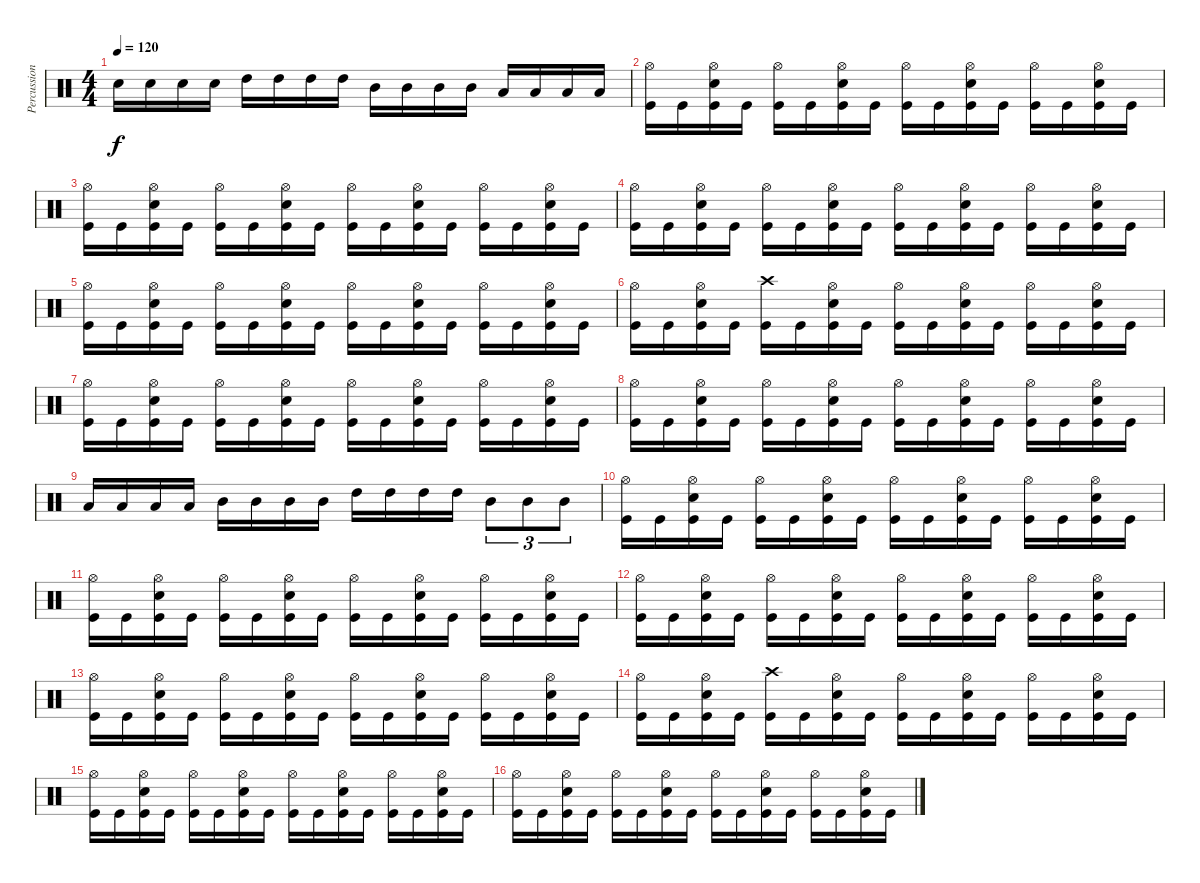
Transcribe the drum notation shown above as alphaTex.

\track ("Percussioni" "Percussion") {instrument percussion}
\staff {score}
\articulation defaults
\ts (4 4)
\tempo 120
\clef neutral
\ks c "Electric Snare (hit)".16{dy f} "Electric Snare (hit)".16 "Electric Snare (hit)".16 "Electric Snare (hit)".16 "High Tom (hit)".16 "High Tom (hit)".16 "High Tom (hit)".16 "High Tom (hit)".16 "Mid Tom (hit)".16 "Mid Tom (hit)".16 "Mid Tom (hit)".16 "Mid Tom (hit)".16 "Low Tom (hit)".16 "Low Tom (hit)".16 "Low Tom (hit)".16 "Low Tom (hit)".16
|
("Hi-Hat (open)" "Kick (hit)").16 "Kick (hit)".16 ("Hi-Hat (open)" "Electric Snare (hit)" "Kick (hit)").16 "Kick (hit)".16 ("Hi-Hat (open)" "Kick (hit)").16 "Kick (hit)".16 ("Hi-Hat (open)" "Electric Snare (hit)" "Kick (hit)").16 "Kick (hit)".16 ("Hi-Hat (open)" "Kick (hit)").16 "Kick (hit)".16 ("Hi-Hat (open)" "Electric Snare (hit)" "Kick (hit)").16 "Kick (hit)".16 ("Hi-Hat (open)" "Kick (hit)").16 "Kick (hit)".16 ("Hi-Hat (open)" "Electric Snare (hit)" "Kick (hit)").16 "Kick (hit)".16 |
("Hi-Hat (open)" "Kick (hit)").16 "Kick (hit)".16 ("Hi-Hat (open)" "Electric Snare (hit)" "Kick (hit)").16 "Kick (hit)".16 ("Hi-Hat (open)" "Kick (hit)").16 "Kick (hit)".16 ("Hi-Hat (open)" "Electric Snare (hit)" "Kick (hit)").16 "Kick (hit)".16 ("Hi-Hat (open)" "Kick (hit)").16 "Kick (hit)".16 ("Hi-Hat (open)" "Electric Snare (hit)" "Kick (hit)").16 "Kick (hit)".16 ("Hi-Hat (open)" "Kick (hit)").16 "Kick (hit)".16 ("Hi-Hat (open)" "Electric Snare (hit)" "Kick (hit)").16 "Kick (hit)".16 |
("Hi-Hat (open)" "Kick (hit)").16 "Kick (hit)".16 ("Hi-Hat (open)" "Electric Snare (hit)" "Kick (hit)").16 "Kick (hit)".16 ("Hi-Hat (open)" "Kick (hit)").16 "Kick (hit)".16 ("Hi-Hat (open)" "Electric Snare (hit)" "Kick (hit)").16 "Kick (hit)".16 ("Hi-Hat (open)" "Kick (hit)").16 "Kick (hit)".16 ("Hi-Hat (open)" "Electric Snare (hit)" "Kick (hit)").16 "Kick (hit)".16 ("Hi-Hat (open)" "Kick (hit)").16 "Kick (hit)".16 ("Hi-Hat (open)" "Electric Snare (hit)" "Kick (hit)").16 "Kick (hit)".16 |
("Hi-Hat (open)" "Kick (hit)").16 "Kick (hit)".16 ("Hi-Hat (open)" "Electric Snare (hit)" "Kick (hit)").16 "Kick (hit)".16 ("Hi-Hat (open)" "Kick (hit)").16 "Kick (hit)".16 ("Hi-Hat (open)" "Electric Snare (hit)" "Kick (hit)").16 "Kick (hit)".16 ("Hi-Hat (open)" "Kick (hit)").16 "Kick (hit)".16 ("Hi-Hat (open)" "Electric Snare (hit)" "Kick (hit)").16 "Kick (hit)".16 ("Hi-Hat (open)" "Kick (hit)").16 "Kick (hit)".16 ("Hi-Hat (open)" "Electric Snare (hit)" "Kick (hit)").16 "Kick (hit)".16 |
("Hi-Hat (open)" "Kick (hit)").16 "Kick (hit)".16 ("Hi-Hat (open)" "Electric Snare (hit)" "Kick (hit)").16 "Kick (hit)".16 ("Crash high (hit)" "Kick (hit)").16 "Kick (hit)".16 ("Hi-Hat (open)" "Electric Snare (hit)" "Kick (hit)").16 "Kick (hit)".16 ("Hi-Hat (open)" "Kick (hit)").16 "Kick (hit)".16 ("Hi-Hat (open)" "Electric Snare (hit)" "Kick (hit)").16 "Kick (hit)".16 ("Hi-Hat (open)" "Kick (hit)").16 "Kick (hit)".16 ("Hi-Hat (open)" "Electric Snare (hit)" "Kick (hit)").16 "Kick (hit)".16 |
("Hi-Hat (open)" "Kick (hit)").16 "Kick (hit)".16 ("Hi-Hat (open)" "Electric Snare (hit)" "Kick (hit)").16 "Kick (hit)".16 ("Hi-Hat (open)" "Kick (hit)").16 "Kick (hit)".16 ("Hi-Hat (open)" "Electric Snare (hit)" "Kick (hit)").16 "Kick (hit)".16 ("Hi-Hat (open)" "Kick (hit)").16 "Kick (hit)".16 ("Hi-Hat (open)" "Electric Snare (hit)" "Kick (hit)").16 "Kick (hit)".16 ("Hi-Hat (open)" "Kick (hit)").16 "Kick (hit)".16 ("Hi-Hat (open)" "Electric Snare (hit)" "Kick (hit)").16 "Kick (hit)".16 |
("Hi-Hat (open)" "Kick (hit)").16 "Kick (hit)".16 ("Hi-Hat (open)" "Electric Snare (hit)" "Kick (hit)").16 "Kick (hit)".16 ("Hi-Hat (open)" "Kick (hit)").16 "Kick (hit)".16 ("Hi-Hat (open)" "Electric Snare (hit)" "Kick (hit)").16 "Kick (hit)".16 ("Hi-Hat (open)" "Kick (hit)").16 "Kick (hit)".16 ("Hi-Hat (open)" "Electric Snare (hit)" "Kick (hit)").16 "Kick (hit)".16 ("Hi-Hat (open)" "Kick (hit)").16 "Kick (hit)".16 ("Hi-Hat (open)" "Electric Snare (hit)" "Kick (hit)").16 "Kick (hit)".16 |
"Low Tom (hit)".16 "Low Tom (hit)".16 "Low Tom (hit)".16 "Low Tom (hit)".16 "Mid Tom (hit)".16 "Mid Tom (hit)".16 "Mid Tom (hit)".16 "Mid Tom (hit)".16 "High Tom (hit)".16 "High Tom (hit)".16 "High Tom (hit)".16 "High Tom (hit)".16 "Mid Tom (hit)".8{tu (3 2)} "Mid Tom (hit)".8{tu (3 2)} "Mid Tom (hit)".8{tu (3 2)} |
("Hi-Hat (open)" "Kick (hit)").16 "Kick (hit)".16 ("Hi-Hat (open)" "Electric Snare (hit)" "Kick (hit)").16 "Kick (hit)".16 ("Hi-Hat (open)" "Kick (hit)").16 "Kick (hit)".16 ("Hi-Hat (open)" "Electric Snare (hit)" "Kick (hit)").16 "Kick (hit)".16 ("Hi-Hat (open)" "Kick (hit)").16 "Kick (hit)".16 ("Hi-Hat (open)" "Electric Snare (hit)" "Kick (hit)").16 "Kick (hit)".16 ("Hi-Hat (open)" "Kick (hit)").16 "Kick (hit)".16 ("Hi-Hat (open)" "Electric Snare (hit)" "Kick (hit)").16 "Kick (hit)".16 |
("Hi-Hat (open)" "Kick (hit)").16 "Kick (hit)".16 ("Hi-Hat (open)" "Electric Snare (hit)" "Kick (hit)").16 "Kick (hit)".16 ("Hi-Hat (open)" "Kick (hit)").16 "Kick (hit)".16 ("Hi-Hat (open)" "Electric Snare (hit)" "Kick (hit)").16 "Kick (hit)".16 ("Hi-Hat (open)" "Kick (hit)").16 "Kick (hit)".16 ("Hi-Hat (open)" "Electric Snare (hit)" "Kick (hit)").16 "Kick (hit)".16 ("Hi-Hat (open)" "Kick (hit)").16 "Kick (hit)".16 ("Hi-Hat (open)" "Electric Snare (hit)" "Kick (hit)").16 "Kick (hit)".16 |
("Hi-Hat (open)" "Kick (hit)").16 "Kick (hit)".16 ("Hi-Hat (open)" "Electric Snare (hit)" "Kick (hit)").16 "Kick (hit)".16 ("Hi-Hat (open)" "Kick (hit)").16 "Kick (hit)".16 ("Hi-Hat (open)" "Electric Snare (hit)" "Kick (hit)").16 "Kick (hit)".16 ("Hi-Hat (open)" "Kick (hit)").16 "Kick (hit)".16 ("Hi-Hat (open)" "Electric Snare (hit)" "Kick (hit)").16 "Kick (hit)".16 ("Hi-Hat (open)" "Kick (hit)").16 "Kick (hit)".16 ("Hi-Hat (open)" "Electric Snare (hit)" "Kick (hit)").16 "Kick (hit)".16 |
("Hi-Hat (open)" "Kick (hit)").16 "Kick (hit)".16 ("Hi-Hat (open)" "Electric Snare (hit)" "Kick (hit)").16 "Kick (hit)".16 ("Hi-Hat (open)" "Kick (hit)").16 "Kick (hit)".16 ("Hi-Hat (open)" "Electric Snare (hit)" "Kick (hit)").16 "Kick (hit)".16 ("Hi-Hat (open)" "Kick (hit)").16 "Kick (hit)".16 ("Hi-Hat (open)" "Electric Snare (hit)" "Kick (hit)").16 "Kick (hit)".16 ("Hi-Hat (open)" "Kick (hit)").16 "Kick (hit)".16 ("Hi-Hat (open)" "Electric Snare (hit)" "Kick (hit)").16 "Kick (hit)".16 |
("Hi-Hat (open)" "Kick (hit)").16 "Kick (hit)".16 ("Hi-Hat (open)" "Electric Snare (hit)" "Kick (hit)").16 "Kick (hit)".16 ("Crash high (hit)" "Kick (hit)").16 "Kick (hit)".16 ("Hi-Hat (open)" "Electric Snare (hit)" "Kick (hit)").16 "Kick (hit)".16 ("Hi-Hat (open)" "Kick (hit)").16 "Kick (hit)".16 ("Hi-Hat (open)" "Electric Snare (hit)" "Kick (hit)").16 "Kick (hit)".16 ("Hi-Hat (open)" "Kick (hit)").16 "Kick (hit)".16 ("Hi-Hat (open)" "Electric Snare (hit)" "Kick (hit)").16 "Kick (hit)".16 |
("Hi-Hat (open)" "Kick (hit)").16 "Kick (hit)".16 ("Hi-Hat (open)" "Electric Snare (hit)" "Kick (hit)").16 "Kick (hit)".16 ("Hi-Hat (open)" "Kick (hit)").16 "Kick (hit)".16 ("Hi-Hat (open)" "Electric Snare (hit)" "Kick (hit)").16 "Kick (hit)".16 ("Hi-Hat (open)" "Kick (hit)").16 "Kick (hit)".16 ("Hi-Hat (open)" "Electric Snare (hit)" "Kick (hit)").16 "Kick (hit)".16 ("Hi-Hat (open)" "Kick (hit)").16 "Kick (hit)".16 ("Hi-Hat (open)" "Electric Snare (hit)" "Kick (hit)").16 "Kick (hit)".16 |
("Hi-Hat (open)" "Kick (hit)").16 "Kick (hit)".16 ("Hi-Hat (open)" "Electric Snare (hit)" "Kick (hit)").16 "Kick (hit)".16 ("Hi-Hat (open)" "Kick (hit)").16 "Kick (hit)".16 ("Hi-Hat (open)" "Electric Snare (hit)" "Kick (hit)").16 "Kick (hit)".16 ("Hi-Hat (open)" "Kick (hit)").16 "Kick (hit)".16 ("Hi-Hat (open)" "Electric Snare (hit)" "Kick (hit)").16 "Kick (hit)".16 ("Hi-Hat (open)" "Kick (hit)").16 "Kick (hit)".16 ("Hi-Hat (open)" "Electric Snare (hit)" "Kick (hit)").16 "Kick (hit)".16
